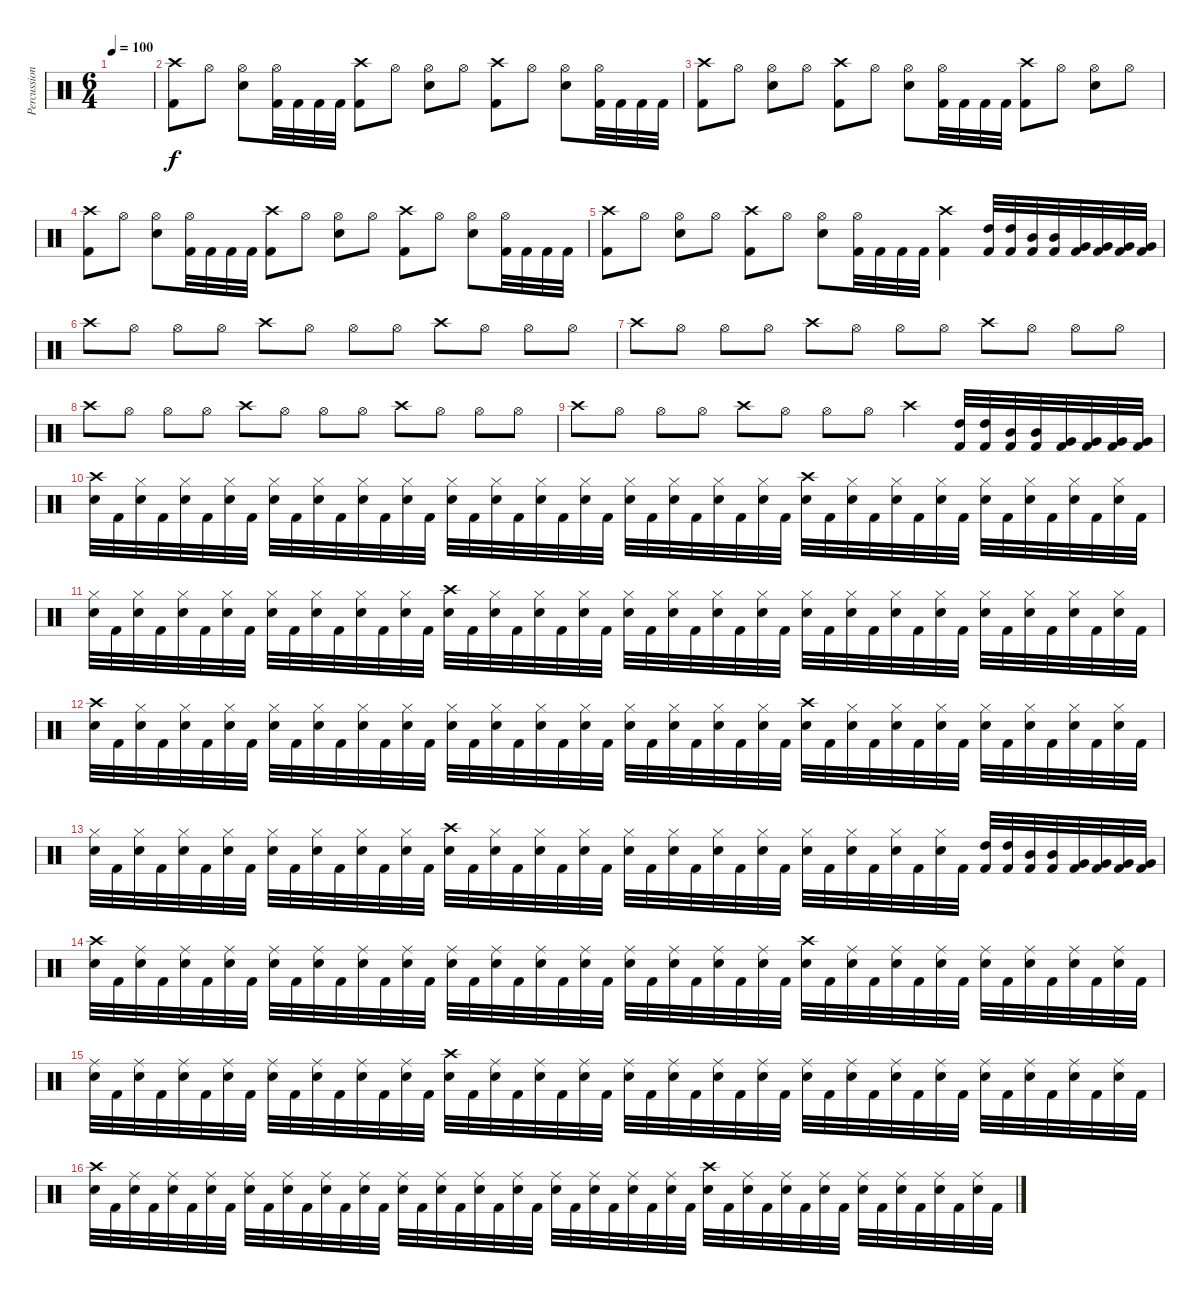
\track ("Percussion" "Percussion") {instrument percussion}
\staff {score}
\articulation defaults
\ts (6 4)
\tempo 100
\clef neutral
\ks c
|
("Crash high (hit)" "Kick (hit) 2").8 "Hi-Hat (open)".8 ("Hi-Hat (open)" "Electric Snare (hit)").8 ("Hi-Hat (open)" "Kick (hit) 2").32 "Kick (hit) 2".32 "Kick (hit) 2".32 "Kick (hit) 2".32 ("Crash high (hit)" "Kick (hit) 2").8 "Hi-Hat (open)".8 ("Hi-Hat (open)" "Electric Snare (hit)").8 "Hi-Hat (open)".8 ("Crash high (hit)" "Kick (hit) 2").8 "Hi-Hat (open)".8 ("Hi-Hat (open)" "Electric Snare (hit)").8 ("Hi-Hat (open)" "Kick (hit) 2").32 "Kick (hit) 2".32 "Kick (hit) 2".32 "Kick (hit) 2".32 |
("Crash high (hit)" "Kick (hit) 2").8 "Hi-Hat (open)".8 ("Hi-Hat (open)" "Electric Snare (hit)").8 "Hi-Hat (open)".8 ("Crash high (hit)" "Kick (hit) 2").8 "Hi-Hat (open)".8 ("Hi-Hat (open)" "Electric Snare (hit)").8 ("Hi-Hat (open)" "Kick (hit) 2").32 "Kick (hit) 2".32 "Kick (hit) 2".32 "Kick (hit) 2".32 ("Crash high (hit)" "Kick (hit) 2").8 "Hi-Hat (open)".8 ("Hi-Hat (open)" "Electric Snare (hit)").8 "Hi-Hat (open)".8 |
("Crash high (hit)" "Kick (hit) 2").8 "Hi-Hat (open)".8 ("Hi-Hat (open)" "Electric Snare (hit)").8 ("Hi-Hat (open)" "Kick (hit) 2").32 "Kick (hit) 2".32 "Kick (hit) 2".32 "Kick (hit) 2".32 ("Crash high (hit)" "Kick (hit) 2").8 "Hi-Hat (open)".8 ("Hi-Hat (open)" "Electric Snare (hit)").8 "Hi-Hat (open)".8 ("Crash high (hit)" "Kick (hit) 2").8 "Hi-Hat (open)".8 ("Hi-Hat (open)" "Electric Snare (hit)").8 ("Hi-Hat (open)" "Kick (hit) 2").32 "Kick (hit) 2".32 "Kick (hit) 2".32 "Kick (hit) 2".32 |
("Crash high (hit)" "Kick (hit) 2").8 "Hi-Hat (open)".8 ("Hi-Hat (open)" "Electric Snare (hit)").8 "Hi-Hat (open)".8 ("Crash high (hit)" "Kick (hit) 2").8 "Hi-Hat (open)".8 ("Hi-Hat (open)" "Electric Snare (hit)").8 ("Hi-Hat (open)" "Kick (hit) 2").32 "Kick (hit) 2".32 "Kick (hit) 2".32 "Kick (hit) 2".32 ("Crash high (hit)" "Kick (hit) 2").4 ("High Tom (hit)" "Kick (hit) 2").32 ("High Tom (hit)" "Kick (hit) 2").32 ("Mid Tom (hit)" "Kick (hit) 2").32 ("Mid Tom (hit)" "Kick (hit) 2").32 ("Very Low Tom (hit)" "Kick (hit) 2").32 ("Very Low Tom (hit)" "Kick (hit) 2").32 ("Very Low Tom (hit)" "Kick (hit) 2").32 ("Very Low Tom (hit)" "Kick (hit) 2").32 |
"Crash high (hit)".8 "Hi-Hat (open)".8 "Hi-Hat (open)".8 "Hi-Hat (open)".8 "Crash high (hit)".8 "Hi-Hat (open)".8 "Hi-Hat (open)".8 "Hi-Hat (open)".8 "Crash high (hit)".8 "Hi-Hat (open)".8 "Hi-Hat (open)".8 "Hi-Hat (open)".8 |
"Crash high (hit)".8 "Hi-Hat (open)".8 "Hi-Hat (open)".8 "Hi-Hat (open)".8 "Crash high (hit)".8 "Hi-Hat (open)".8 "Hi-Hat (open)".8 "Hi-Hat (open)".8 "Crash high (hit)".8 "Hi-Hat (open)".8 "Hi-Hat (open)".8 "Hi-Hat (open)".8 |
"Crash high (hit)".8 "Hi-Hat (open)".8 "Hi-Hat (open)".8 "Hi-Hat (open)".8 "Crash high (hit)".8 "Hi-Hat (open)".8 "Hi-Hat (open)".8 "Hi-Hat (open)".8 "Crash high (hit)".8 "Hi-Hat (open)".8 "Hi-Hat (open)".8 "Hi-Hat (open)".8 |
"Crash high (hit)".8 "Hi-Hat (open)".8 "Hi-Hat (open)".8 "Hi-Hat (open)".8 "Crash high (hit)".8 "Hi-Hat (open)".8 "Hi-Hat (open)".8 "Hi-Hat (open)".8 "Crash high (hit)".4 ("High Tom (hit)" "Kick (hit) 2").32 ("High Tom (hit)" "Kick (hit) 2").32 ("Mid Tom (hit)" "Kick (hit) 2").32 ("Mid Tom (hit)" "Kick (hit) 2").32 ("Very Low Tom (hit)" "Kick (hit) 2").32 ("Very Low Tom (hit)" "Kick (hit) 2").32 ("Very Low Tom (hit)" "Kick (hit) 2").32 ("Very Low Tom (hit)" "Kick (hit) 2").32 |
("Crash high (hit)" "Electric Snare (hit)").32 "Kick (hit) 2".32 ("Hi-Hat (closed)" "Electric Snare (hit)").32 "Kick (hit) 2".32 ("Hi-Hat (closed)" "Electric Snare (hit)").32 "Kick (hit) 2".32 ("Hi-Hat (closed)" "Electric Snare (hit)").32 "Kick (hit) 2".32 ("Hi-Hat (closed)" "Electric Snare (hit)").32 "Kick (hit) 2".32 ("Hi-Hat (closed)" "Electric Snare (hit)").32 "Kick (hit) 2".32 ("Hi-Hat (closed)" "Electric Snare (hit)").32 "Kick (hit) 2".32 ("Hi-Hat (closed)" "Electric Snare (hit)").32 "Kick (hit) 2".32 ("Hi-Hat (closed)" "Electric Snare (hit)").32 "Kick (hit) 2".32 ("Hi-Hat (closed)" "Electric Snare (hit)").32 "Kick (hit) 2".32 ("Hi-Hat (closed)" "Electric Snare (hit)").32 "Kick (hit) 2".32 ("Hi-Hat (closed)" "Electric Snare (hit)").32 "Kick (hit) 2".32 ("Hi-Hat (closed)" "Electric Snare (hit)").32 "Kick (hit) 2".32 ("Hi-Hat (closed)" "Electric Snare (hit)").32 "Kick (hit) 2".32 ("Hi-Hat (closed)" "Electric Snare (hit)").32 "Kick (hit) 2".32 ("Hi-Hat (closed)" "Electric Snare (hit)").32 "Kick (hit) 2".32 ("Crash high (hit)" "Electric Snare (hit)").32 "Kick (hit) 2".32 ("Hi-Hat (closed)" "Electric Snare (hit)").32 "Kick (hit) 2".32 ("Hi-Hat (closed)" "Electric Snare (hit)").32 "Kick (hit) 2".32 ("Hi-Hat (closed)" "Electric Snare (hit)").32 "Kick (hit) 2".32 ("Hi-Hat (closed)" "Electric Snare (hit)").32 "Kick (hit) 2".32 ("Hi-Hat (closed)" "Electric Snare (hit)").32 "Kick (hit) 2".32 ("Hi-Hat (closed)" "Electric Snare (hit)").32 "Kick (hit) 2".32 ("Hi-Hat (closed)" "Electric Snare (hit)").32 "Kick (hit) 2".32 |
("Hi-Hat (closed)" "Electric Snare (hit)").32 "Kick (hit) 2".32 ("Hi-Hat (closed)" "Electric Snare (hit)").32 "Kick (hit) 2".32 ("Hi-Hat (closed)" "Electric Snare (hit)").32 "Kick (hit) 2".32 ("Hi-Hat (closed)" "Electric Snare (hit)").32 "Kick (hit) 2".32 ("Hi-Hat (closed)" "Electric Snare (hit)").32 "Kick (hit) 2".32 ("Hi-Hat (closed)" "Electric Snare (hit)").32 "Kick (hit) 2".32 ("Hi-Hat (closed)" "Electric Snare (hit)").32 "Kick (hit) 2".32 ("Hi-Hat (closed)" "Electric Snare (hit)").32 "Kick (hit) 2".32 ("Crash high (hit)" "Electric Snare (hit)").32 "Kick (hit) 2".32 ("Hi-Hat (closed)" "Electric Snare (hit)").32 "Kick (hit) 2".32 ("Hi-Hat (closed)" "Electric Snare (hit)").32 "Kick (hit) 2".32 ("Hi-Hat (closed)" "Electric Snare (hit)").32 "Kick (hit) 2".32 ("Hi-Hat (closed)" "Electric Snare (hit)").32 "Kick (hit) 2".32 ("Hi-Hat (closed)" "Electric Snare (hit)").32 "Kick (hit) 2".32 ("Hi-Hat (closed)" "Electric Snare (hit)").32 "Kick (hit) 2".32 ("Hi-Hat (closed)" "Electric Snare (hit)").32 "Kick (hit) 2".32 ("Hi-Hat (closed)" "Electric Snare (hit)").32 "Kick (hit) 2".32 ("Hi-Hat (closed)" "Electric Snare (hit)").32 "Kick (hit) 2".32 ("Hi-Hat (closed)" "Electric Snare (hit)").32 "Kick (hit) 2".32 ("Hi-Hat (closed)" "Electric Snare (hit)").32 "Kick (hit) 2".32 ("Hi-Hat (closed)" "Electric Snare (hit)").32 "Kick (hit) 2".32 ("Hi-Hat (closed)" "Electric Snare (hit)").32 "Kick (hit) 2".32 ("Hi-Hat (closed)" "Electric Snare (hit)").32 "Kick (hit) 2".32 ("Hi-Hat (closed)" "Electric Snare (hit)").32 "Kick (hit) 2".32 |
("Crash high (hit)" "Electric Snare (hit)").32 "Kick (hit) 2".32 ("Hi-Hat (closed)" "Electric Snare (hit)").32 "Kick (hit) 2".32 ("Hi-Hat (closed)" "Electric Snare (hit)").32 "Kick (hit) 2".32 ("Hi-Hat (closed)" "Electric Snare (hit)").32 "Kick (hit) 2".32 ("Hi-Hat (closed)" "Electric Snare (hit)").32 "Kick (hit) 2".32 ("Hi-Hat (closed)" "Electric Snare (hit)").32 "Kick (hit) 2".32 ("Hi-Hat (closed)" "Electric Snare (hit)").32 "Kick (hit) 2".32 ("Hi-Hat (closed)" "Electric Snare (hit)").32 "Kick (hit) 2".32 ("Hi-Hat (closed)" "Electric Snare (hit)").32 "Kick (hit) 2".32 ("Hi-Hat (closed)" "Electric Snare (hit)").32 "Kick (hit) 2".32 ("Hi-Hat (closed)" "Electric Snare (hit)").32 "Kick (hit) 2".32 ("Hi-Hat (closed)" "Electric Snare (hit)").32 "Kick (hit) 2".32 ("Hi-Hat (closed)" "Electric Snare (hit)").32 "Kick (hit) 2".32 ("Hi-Hat (closed)" "Electric Snare (hit)").32 "Kick (hit) 2".32 ("Hi-Hat (closed)" "Electric Snare (hit)").32 "Kick (hit) 2".32 ("Hi-Hat (closed)" "Electric Snare (hit)").32 "Kick (hit) 2".32 ("Crash high (hit)" "Electric Snare (hit)").32 "Kick (hit) 2".32 ("Hi-Hat (closed)" "Electric Snare (hit)").32 "Kick (hit) 2".32 ("Hi-Hat (closed)" "Electric Snare (hit)").32 "Kick (hit) 2".32 ("Hi-Hat (closed)" "Electric Snare (hit)").32 "Kick (hit) 2".32 ("Hi-Hat (closed)" "Electric Snare (hit)").32 "Kick (hit) 2".32 ("Hi-Hat (closed)" "Electric Snare (hit)").32 "Kick (hit) 2".32 ("Hi-Hat (closed)" "Electric Snare (hit)").32 "Kick (hit) 2".32 ("Hi-Hat (closed)" "Electric Snare (hit)").32 "Kick (hit) 2".32 |
("Hi-Hat (closed)" "Electric Snare (hit)").32 "Kick (hit) 2".32 ("Hi-Hat (closed)" "Electric Snare (hit)").32 "Kick (hit) 2".32 ("Hi-Hat (closed)" "Electric Snare (hit)").32 "Kick (hit) 2".32 ("Hi-Hat (closed)" "Electric Snare (hit)").32 "Kick (hit) 2".32 ("Hi-Hat (closed)" "Electric Snare (hit)").32 "Kick (hit) 2".32 ("Hi-Hat (closed)" "Electric Snare (hit)").32 "Kick (hit) 2".32 ("Hi-Hat (closed)" "Electric Snare (hit)").32 "Kick (hit) 2".32 ("Hi-Hat (closed)" "Electric Snare (hit)").32 "Kick (hit) 2".32 ("Crash high (hit)" "Electric Snare (hit)").32 "Kick (hit) 2".32 ("Hi-Hat (closed)" "Electric Snare (hit)").32 "Kick (hit) 2".32 ("Hi-Hat (closed)" "Electric Snare (hit)").32 "Kick (hit) 2".32 ("Hi-Hat (closed)" "Electric Snare (hit)").32 "Kick (hit) 2".32 ("Hi-Hat (closed)" "Electric Snare (hit)").32 "Kick (hit) 2".32 ("Hi-Hat (closed)" "Electric Snare (hit)").32 "Kick (hit) 2".32 ("Hi-Hat (closed)" "Electric Snare (hit)").32 "Kick (hit) 2".32 ("Hi-Hat (closed)" "Electric Snare (hit)").32 "Kick (hit) 2".32 ("Hi-Hat (closed)" "Electric Snare (hit)").32 "Kick (hit) 2".32 ("Hi-Hat (closed)" "Electric Snare (hit)").32 "Kick (hit) 2".32 ("Hi-Hat (closed)" "Electric Snare (hit)").32 "Kick (hit) 2".32 ("Hi-Hat (closed)" "Electric Snare (hit)").32 "Kick (hit) 2".32 ("High Tom (hit)" "Kick (hit) 2").32 ("High Tom (hit)" "Kick (hit) 2").32 ("Mid Tom (hit)" "Kick (hit) 2").32 ("Mid Tom (hit)" "Kick (hit) 2").32 ("Very Low Tom (hit)" "Kick (hit) 2").32 ("Very Low Tom (hit)" "Kick (hit) 2").32 ("Very Low Tom (hit)" "Kick (hit) 2").32 ("Very Low Tom (hit)" "Kick (hit) 2").32 |
("Crash high (hit)" "Electric Snare (hit)").32 "Kick (hit) 2".32 ("Ride (middle)" "Electric Snare (hit)").32 "Kick (hit) 2".32 ("Ride (middle)" "Electric Snare (hit)").32 "Kick (hit) 2".32 ("Ride (middle)" "Electric Snare (hit)").32 "Kick (hit) 2".32 ("Ride (middle)" "Electric Snare (hit)").32 "Kick (hit) 2".32 ("Ride (middle)" "Electric Snare (hit)").32 "Kick (hit) 2".32 ("Ride (middle)" "Electric Snare (hit)").32 "Kick (hit) 2".32 ("Ride (middle)" "Electric Snare (hit)").32 "Kick (hit) 2".32 ("Ride (middle)" "Electric Snare (hit)").32 "Kick (hit) 2".32 ("Ride (middle)" "Electric Snare (hit)").32 "Kick (hit) 2".32 ("Ride (middle)" "Electric Snare (hit)").32 "Kick (hit) 2".32 ("Ride (middle)" "Electric Snare (hit)").32 "Kick (hit) 2".32 ("Ride (middle)" "Electric Snare (hit)").32 "Kick (hit) 2".32 ("Ride (middle)" "Electric Snare (hit)").32 "Kick (hit) 2".32 ("Ride (middle)" "Electric Snare (hit)").32 "Kick (hit) 2".32 ("Ride (middle)" "Electric Snare (hit)").32 "Kick (hit) 2".32 ("Crash high (hit)" "Electric Snare (hit)").32 "Kick (hit) 2".32 ("Ride (middle)" "Electric Snare (hit)").32 "Kick (hit) 2".32 ("Ride (middle)" "Electric Snare (hit)").32 "Kick (hit) 2".32 ("Ride (middle)" "Electric Snare (hit)").32 "Kick (hit) 2".32 ("Ride (middle)" "Electric Snare (hit)").32 "Kick (hit) 2".32 ("Ride (middle)" "Electric Snare (hit)").32 "Kick (hit) 2".32 ("Ride (middle)" "Electric Snare (hit)").32 "Kick (hit) 2".32 ("Ride (middle)" "Electric Snare (hit)").32 "Kick (hit) 2".32 |
("Ride (middle)" "Electric Snare (hit)").32 "Kick (hit) 2".32 ("Ride (middle)" "Electric Snare (hit)").32 "Kick (hit) 2".32 ("Ride (middle)" "Electric Snare (hit)").32 "Kick (hit) 2".32 ("Ride (middle)" "Electric Snare (hit)").32 "Kick (hit) 2".32 ("Ride (middle)" "Electric Snare (hit)").32 "Kick (hit) 2".32 ("Ride (middle)" "Electric Snare (hit)").32 "Kick (hit) 2".32 ("Ride (middle)" "Electric Snare (hit)").32 "Kick (hit) 2".32 ("Ride (middle)" "Electric Snare (hit)").32 "Kick (hit) 2".32 ("Crash high (hit)" "Electric Snare (hit)").32 "Kick (hit) 2".32 ("Ride (middle)" "Electric Snare (hit)").32 "Kick (hit) 2".32 ("Ride (middle)" "Electric Snare (hit)").32 "Kick (hit) 2".32 ("Ride (middle)" "Electric Snare (hit)").32 "Kick (hit) 2".32 ("Ride (middle)" "Electric Snare (hit)").32 "Kick (hit) 2".32 ("Ride (middle)" "Electric Snare (hit)").32 "Kick (hit) 2".32 ("Ride (middle)" "Electric Snare (hit)").32 "Kick (hit) 2".32 ("Ride (middle)" "Electric Snare (hit)").32 "Kick (hit) 2".32 ("Ride (middle)" "Electric Snare (hit)").32 "Kick (hit) 2".32 ("Ride (middle)" "Electric Snare (hit)").32 "Kick (hit) 2".32 ("Ride (middle)" "Electric Snare (hit)").32 "Kick (hit) 2".32 ("Ride (middle)" "Electric Snare (hit)").32 "Kick (hit) 2".32 ("Ride (middle)" "Electric Snare (hit)").32 "Kick (hit) 2".32 ("Ride (middle)" "Electric Snare (hit)").32 "Kick (hit) 2".32 ("Ride (middle)" "Electric Snare (hit)").32 "Kick (hit) 2".32 ("Ride (middle)" "Electric Snare (hit)").32 "Kick (hit) 2".32 |
("Crash high (hit)" "Electric Snare (hit)").32 "Kick (hit) 2".32 ("Ride (middle)" "Electric Snare (hit)").32 "Kick (hit) 2".32 ("Ride (middle)" "Electric Snare (hit)").32 "Kick (hit) 2".32 ("Ride (middle)" "Electric Snare (hit)").32 "Kick (hit) 2".32 ("Ride (middle)" "Electric Snare (hit)").32 "Kick (hit) 2".32 ("Ride (middle)" "Electric Snare (hit)").32 "Kick (hit) 2".32 ("Ride (middle)" "Electric Snare (hit)").32 "Kick (hit) 2".32 ("Ride (middle)" "Electric Snare (hit)").32 "Kick (hit) 2".32 ("Ride (middle)" "Electric Snare (hit)").32 "Kick (hit) 2".32 ("Ride (middle)" "Electric Snare (hit)").32 "Kick (hit) 2".32 ("Ride (middle)" "Electric Snare (hit)").32 "Kick (hit) 2".32 ("Ride (middle)" "Electric Snare (hit)").32 "Kick (hit) 2".32 ("Ride (middle)" "Electric Snare (hit)").32 "Kick (hit) 2".32 ("Ride (middle)" "Electric Snare (hit)").32 "Kick (hit) 2".32 ("Ride (middle)" "Electric Snare (hit)").32 "Kick (hit) 2".32 ("Ride (middle)" "Electric Snare (hit)").32 "Kick (hit) 2".32 ("Crash high (hit)" "Electric Snare (hit)").32 "Kick (hit) 2".32 ("Ride (middle)" "Electric Snare (hit)").32 "Kick (hit) 2".32 ("Ride (middle)" "Electric Snare (hit)").32 "Kick (hit) 2".32 ("Ride (middle)" "Electric Snare (hit)").32 "Kick (hit) 2".32 ("Ride (middle)" "Electric Snare (hit)").32 "Kick (hit) 2".32 ("Ride (middle)" "Electric Snare (hit)").32 "Kick (hit) 2".32 ("Ride (middle)" "Electric Snare (hit)").32 "Kick (hit) 2".32 ("Ride (middle)" "Electric Snare (hit)").32 "Kick (hit) 2".32
